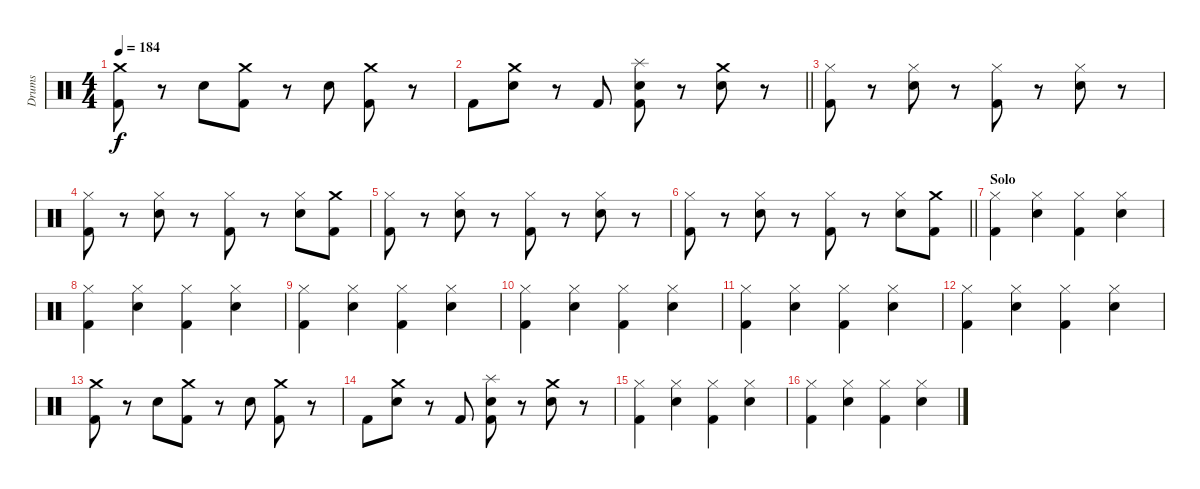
\track ("Drums" "Drums") {instrument percussion}
\staff {score}
\articulation defaults
\ts (4 4)
\tempo 184
\clef neutral
\ks c
("Crash medium (hit)" "Kick (hit) 2").8{dy f} r.8 "Snare (hit) 2".8 ("Crash medium (hit)" "Kick (hit) 2").8 r.8 "Snare (hit) 2".8 ("Crash medium (hit)" "Kick (hit) 2").8 r.8 |
\barLineRight lightlight "Kick (hit) 2".8
("Crash medium (hit)" "Snare (hit) 2").8 r.8 "Kick (hit) 2".8 ("Splash (hit)" "Snare (hit) 2" "Kick (hit) 2").8 r.8 ("Crash medium (hit)" "Snare (hit) 2").8 r.8 |
("Hi-Hat (closed)" "Kick (hit) 2").8 r.8 ("Hi-Hat (closed)" "Snare (hit) 2").8 r.8 ("Hi-Hat (closed)" "Kick (hit) 2").8 r.8 ("Hi-Hat (closed)" "Snare (hit) 2").8 r.8 |
("Hi-Hat (closed)" "Kick (hit) 2").8 r.8 ("Hi-Hat (closed)" "Snare (hit) 2").8 r.8 ("Hi-Hat (closed)" "Kick (hit) 2").8 r.8 ("Hi-Hat (closed)" "Snare (hit) 2").8 ("Crash medium (hit)" "Kick (hit) 2").8 |
("Hi-Hat (closed)" "Kick (hit) 2").8 r.8 ("Hi-Hat (closed)" "Snare (hit) 2").8 r.8 ("Hi-Hat (closed)" "Kick (hit) 2").8 r.8 ("Hi-Hat (closed)" "Snare (hit) 2").8 r.8 |
\barLineRight lightlight
("Hi-Hat (closed)" "Kick (hit) 2").8 r.8 ("Hi-Hat (closed)" "Snare (hit) 2").8 r.8 ("Hi-Hat (closed)" "Kick (hit) 2").8 r.8 ("Hi-Hat (closed)" "Snare (hit) 2").8 ("Crash medium (hit)" "Kick (hit) 2").8 |
\section ("" "Solo")
("Hi-Hat (closed)" "Kick (hit) 2").4 ("Hi-Hat (closed)" "Snare (hit) 2").4 ("Hi-Hat (closed)" "Kick (hit) 2").4 ("Hi-Hat (closed)" "Snare (hit) 2").4 |
("Hi-Hat (closed)" "Kick (hit) 2").4 ("Hi-Hat (closed)" "Snare (hit) 2").4 ("Hi-Hat (closed)" "Kick (hit) 2").4 ("Hi-Hat (closed)" "Snare (hit) 2").4 |
("Hi-Hat (closed)" "Kick (hit) 2").4 ("Hi-Hat (closed)" "Snare (hit) 2").4 ("Hi-Hat (closed)" "Kick (hit) 2").4 ("Hi-Hat (closed)" "Snare (hit) 2").4 |
("Hi-Hat (closed)" "Kick (hit) 2").4 ("Hi-Hat (closed)" "Snare (hit) 2").4 ("Hi-Hat (closed)" "Kick (hit) 2").4 ("Hi-Hat (closed)" "Snare (hit) 2").4 |
("Hi-Hat (closed)" "Kick (hit) 2").4 ("Hi-Hat (closed)" "Snare (hit) 2").4 ("Hi-Hat (closed)" "Kick (hit) 2").4 ("Hi-Hat (closed)" "Snare (hit) 2").4 |
("Hi-Hat (closed)" "Kick (hit) 2").4 ("Hi-Hat (closed)" "Snare (hit) 2").4 ("Hi-Hat (closed)" "Kick (hit) 2").4 ("Hi-Hat (closed)" "Snare (hit) 2").4 |
("Crash medium (hit)" "Kick (hit) 2").8 r.8 "Snare (hit) 2".8 ("Crash medium (hit)" "Kick (hit) 2").8 r.8 "Snare (hit) 2".8 ("Crash medium (hit)" "Kick (hit) 2").8 r.8 |
"Kick (hit) 2".8 ("Crash medium (hit)" "Snare (hit) 2").8 r.8 "Kick (hit) 2".8 ("Splash (hit)" "Snare (hit) 2" "Kick (hit) 2").8 r.8 ("Crash medium (hit)" "Snare (hit) 2").8 r.8 |
("Hi-Hat (closed)" "Kick (hit) 2").4 ("Hi-Hat (closed)" "Snare (hit) 2").4 ("Hi-Hat (closed)" "Kick (hit) 2").4 ("Hi-Hat (closed)" "Snare (hit) 2").4 |
("Hi-Hat (closed)" "Kick (hit) 2").4 ("Hi-Hat (closed)" "Snare (hit) 2").4 ("Hi-Hat (closed)" "Kick (hit) 2").4 ("Hi-Hat (closed)" "Snare (hit) 2").4
